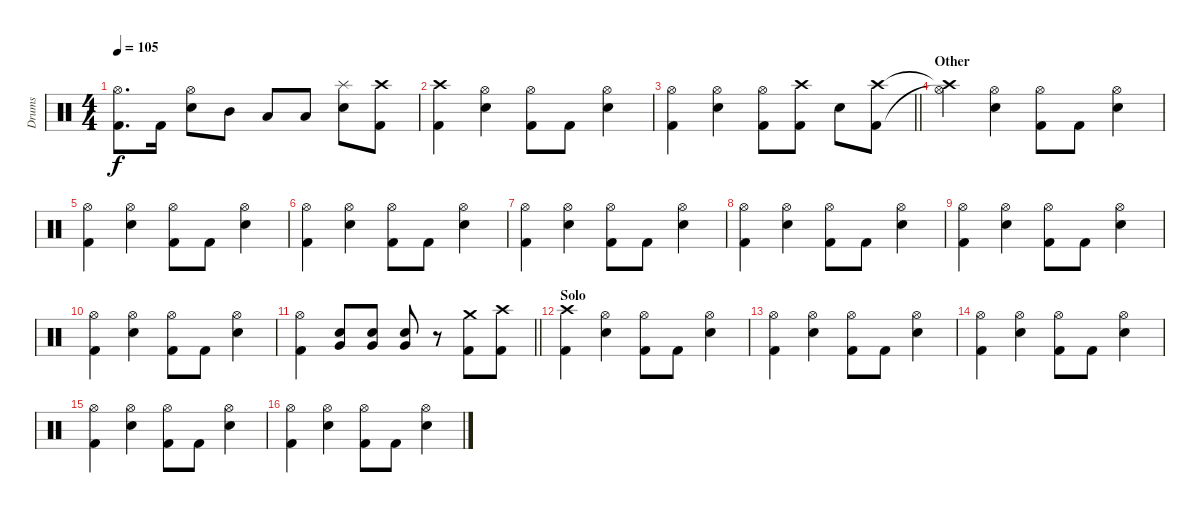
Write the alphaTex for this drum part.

\track ("Drums" "Drums") {instrument percussion}
\staff {score}
\articulation defaults
\ts (4 4)
\tempo 105
\clef neutral
\ks c
("Hi-Hat (open)" "Kick (hit) 2").8{d dy f} "Kick (hit) 2".16 ("Hi-Hat (open)" "Electric Snare (hit)").8 "Mid Tom (hit)".8 "Low Tom (hit)".8 "Low Tom (hit)".8 ("Splash (hit)" "Electric Snare (hit)").8 ("Kick (hit) 2" "Crash high (hit)").8 |
("Crash high (hit)" "Kick (hit) 2").4 ("Electric Snare (hit)" "Hi-Hat (open)").4 ("Hi-Hat (open)" "Kick (hit) 2").8 "Kick (hit) 2".8 ("Hi-Hat (open)" "Electric Snare (hit)").4 |
\barLineRight lightlight
("Hi-Hat (open)" "Kick (hit) 2").4 ("Electric Snare (hit)" "Hi-Hat (open)").4 ("Hi-Hat (open)" "Kick (hit) 2").8 ("Crash high (hit)" "Kick (hit) 2").8 "Snare (hit) 2".8 ("Crash high (hit)" "Kick (hit) 2").8 |
\section ("" "Other")
("Crash high (hit)"{t} "Hi-Hat (open)"{t}).4 ("Electric Snare (hit)" "Hi-Hat (open)").4 ("Hi-Hat (open)" "Kick (hit) 2").8 "Kick (hit) 2".8 ("Hi-Hat (open)" "Electric Snare (hit)").4 |
("Hi-Hat (open)" "Kick (hit) 2").4 ("Electric Snare (hit)" "Hi-Hat (open)").4 ("Hi-Hat (open)" "Kick (hit) 2").8 "Kick (hit) 2".8 ("Hi-Hat (open)" "Electric Snare (hit)").4 |
("Hi-Hat (open)" "Kick (hit) 2").4 ("Electric Snare (hit)" "Hi-Hat (open)").4 ("Hi-Hat (open)" "Kick (hit) 2").8 "Kick (hit) 2".8 ("Hi-Hat (open)" "Electric Snare (hit)").4 |
("Hi-Hat (open)" "Kick (hit) 2").4 ("Electric Snare (hit)" "Hi-Hat (open)").4 ("Hi-Hat (open)" "Kick (hit) 2").8 "Kick (hit) 2".8 ("Hi-Hat (open)" "Electric Snare (hit)").4 |
("Hi-Hat (open)" "Kick (hit) 2").4 ("Electric Snare (hit)" "Hi-Hat (open)").4 ("Hi-Hat (open)" "Kick (hit) 2").8 "Kick (hit) 2".8 ("Hi-Hat (open)" "Electric Snare (hit)").4 |
("Hi-Hat (open)" "Kick (hit) 2").4 ("Electric Snare (hit)" "Hi-Hat (open)").4 ("Hi-Hat (open)" "Kick (hit) 2").8 "Kick (hit) 2".8 ("Hi-Hat (open)" "Electric Snare (hit)").4 |
("Hi-Hat (open)" "Kick (hit) 2").4 ("Electric Snare (hit)" "Hi-Hat (open)").4 ("Hi-Hat (open)" "Kick (hit) 2").8 "Kick (hit) 2".8 ("Hi-Hat (open)" "Electric Snare (hit)").4 |
\barLineRight lightlight
("Kick (hit) 2" "Hi-Hat (open)").4 ("Electric Snare (hit)" "Very Low Tom (hit)").8 ("Electric Snare (hit)" "Very Low Tom (hit)").8 ("Electric Snare (hit)" "Very Low Tom (hit)").8 r.8 ("Kick (hit) 2" "Crash medium (hit)").8 ("Kick (hit) 2" "Crash high (hit)").8 |
\section ("" "Solo")
("Crash high (hit)" "Kick (hit) 2").4 ("Electric Snare (hit)" "Hi-Hat (open)").4 ("Hi-Hat (open)" "Kick (hit) 2").8 "Kick (hit) 2".8 ("Hi-Hat (open)" "Electric Snare (hit)").4 |
("Hi-Hat (open)" "Kick (hit) 2").4 ("Electric Snare (hit)" "Hi-Hat (open)").4 ("Hi-Hat (open)" "Kick (hit) 2").8 "Kick (hit) 2".8 ("Hi-Hat (open)" "Electric Snare (hit)").4 |
("Hi-Hat (open)" "Kick (hit) 2").4 ("Electric Snare (hit)" "Hi-Hat (open)").4 ("Hi-Hat (open)" "Kick (hit) 2").8 "Kick (hit) 2".8 ("Hi-Hat (open)" "Electric Snare (hit)").4 |
("Hi-Hat (open)" "Kick (hit) 2").4 ("Electric Snare (hit)" "Hi-Hat (open)").4 ("Hi-Hat (open)" "Kick (hit) 2").8 "Kick (hit) 2".8 ("Hi-Hat (open)" "Electric Snare (hit)").4 |
("Hi-Hat (open)" "Kick (hit) 2").4 ("Electric Snare (hit)" "Hi-Hat (open)").4 ("Hi-Hat (open)" "Kick (hit) 2").8 "Kick (hit) 2".8 ("Hi-Hat (open)" "Electric Snare (hit)").4
